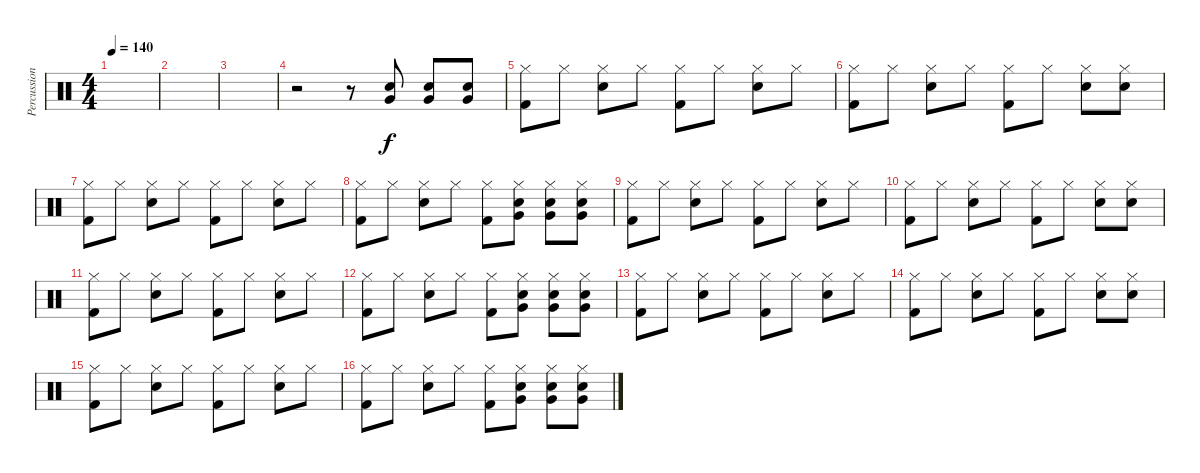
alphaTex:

\track ("Percussion" "Percussion") {instrument percussion}
\staff {score}
\articulation defaults
\ts (4 4)
\tempo 140
\clef neutral
\ks c
|
|
|
r.2 r.8 ("Snare (hit) 2" "Very Low Tom (hit)").8 ("Snare (hit) 2" "Very Low Tom (hit)").8 ("Snare (hit) 2" "Very Low Tom (hit)").8 |
("Hi-Hat (closed)" "Kick (hit) 2").8 "Hi-Hat (closed)".8 ("Hi-Hat (closed)" "Snare (hit) 2").8 "Hi-Hat (closed)".8 ("Hi-Hat (closed)" "Kick (hit) 2").8 "Hi-Hat (closed)".8 ("Hi-Hat (closed)" "Snare (hit) 2").8 "Hi-Hat (closed)".8 |
("Hi-Hat (closed)" "Kick (hit) 2").8 "Hi-Hat (closed)".8 ("Hi-Hat (closed)" "Snare (hit) 2").8 "Hi-Hat (closed)".8 ("Hi-Hat (closed)" "Kick (hit) 2").8 "Hi-Hat (closed)".8 ("Hi-Hat (closed)" "Snare (hit) 2").8 ("Hi-Hat (closed)" "Snare (hit) 2").8 |
("Hi-Hat (closed)" "Kick (hit) 2").8 "Hi-Hat (closed)".8 ("Hi-Hat (closed)" "Snare (hit) 2").8 "Hi-Hat (closed)".8 ("Hi-Hat (closed)" "Kick (hit) 2").8 "Hi-Hat (closed)".8 ("Hi-Hat (closed)" "Snare (hit) 2").8 "Hi-Hat (closed)".8 |
("Hi-Hat (closed)" "Kick (hit) 2").8 "Hi-Hat (closed)".8 ("Hi-Hat (closed)" "Snare (hit) 2").8 "Hi-Hat (closed)".8 ("Hi-Hat (closed)" "Kick (hit) 2").8 ("Hi-Hat (closed)" "Snare (hit) 2" "Very Low Tom (hit)").8 ("Hi-Hat (closed)" "Snare (hit) 2" "Very Low Tom (hit)").8 ("Hi-Hat (closed)" "Snare (hit) 2" "Very Low Tom (hit)").8 |
("Hi-Hat (closed)" "Kick (hit) 2").8 "Hi-Hat (closed)".8 ("Hi-Hat (closed)" "Snare (hit) 2").8 "Hi-Hat (closed)".8 ("Hi-Hat (closed)" "Kick (hit) 2").8 "Hi-Hat (closed)".8 ("Hi-Hat (closed)" "Snare (hit) 2").8 "Hi-Hat (closed)".8 |
("Hi-Hat (closed)" "Kick (hit) 2").8 "Hi-Hat (closed)".8 ("Hi-Hat (closed)" "Snare (hit) 2").8 "Hi-Hat (closed)".8 ("Hi-Hat (closed)" "Kick (hit) 2").8 "Hi-Hat (closed)".8 ("Hi-Hat (closed)" "Snare (hit) 2").8 ("Hi-Hat (closed)" "Snare (hit) 2").8 |
("Hi-Hat (closed)" "Kick (hit) 2").8 "Hi-Hat (closed)".8 ("Hi-Hat (closed)" "Snare (hit) 2").8 "Hi-Hat (closed)".8 ("Hi-Hat (closed)" "Kick (hit) 2").8 "Hi-Hat (closed)".8 ("Hi-Hat (closed)" "Snare (hit) 2").8 "Hi-Hat (closed)".8 |
("Hi-Hat (closed)" "Kick (hit) 2").8 "Hi-Hat (closed)".8 ("Hi-Hat (closed)" "Snare (hit) 2").8 "Hi-Hat (closed)".8 ("Hi-Hat (closed)" "Kick (hit) 2").8 ("Hi-Hat (closed)" "Snare (hit) 2" "Very Low Tom (hit)").8 ("Hi-Hat (closed)" "Snare (hit) 2" "Very Low Tom (hit)").8 ("Hi-Hat (closed)" "Snare (hit) 2" "Very Low Tom (hit)").8 |
("Hi-Hat (closed)" "Kick (hit) 2").8 "Hi-Hat (closed)".8 ("Hi-Hat (closed)" "Snare (hit) 2").8 "Hi-Hat (closed)".8 ("Hi-Hat (closed)" "Kick (hit) 2").8 "Hi-Hat (closed)".8 ("Hi-Hat (closed)" "Snare (hit) 2").8 "Hi-Hat (closed)".8 |
("Hi-Hat (closed)" "Kick (hit) 2").8 "Hi-Hat (closed)".8 ("Hi-Hat (closed)" "Snare (hit) 2").8 "Hi-Hat (closed)".8 ("Hi-Hat (closed)" "Kick (hit) 2").8 "Hi-Hat (closed)".8 ("Hi-Hat (closed)" "Snare (hit) 2").8 ("Hi-Hat (closed)" "Snare (hit) 2").8 |
("Hi-Hat (closed)" "Kick (hit) 2").8 "Hi-Hat (closed)".8 ("Hi-Hat (closed)" "Snare (hit) 2").8 "Hi-Hat (closed)".8 ("Hi-Hat (closed)" "Kick (hit) 2").8 "Hi-Hat (closed)".8 ("Hi-Hat (closed)" "Snare (hit) 2").8 "Hi-Hat (closed)".8 |
("Hi-Hat (closed)" "Kick (hit) 2").8 "Hi-Hat (closed)".8 ("Hi-Hat (closed)" "Snare (hit) 2").8 "Hi-Hat (closed)".8 ("Hi-Hat (closed)" "Kick (hit) 2").8 ("Hi-Hat (closed)" "Snare (hit) 2" "Very Low Tom (hit)").8 ("Hi-Hat (closed)" "Snare (hit) 2" "Very Low Tom (hit)").8 ("Hi-Hat (closed)" "Snare (hit) 2" "Very Low Tom (hit)").8
